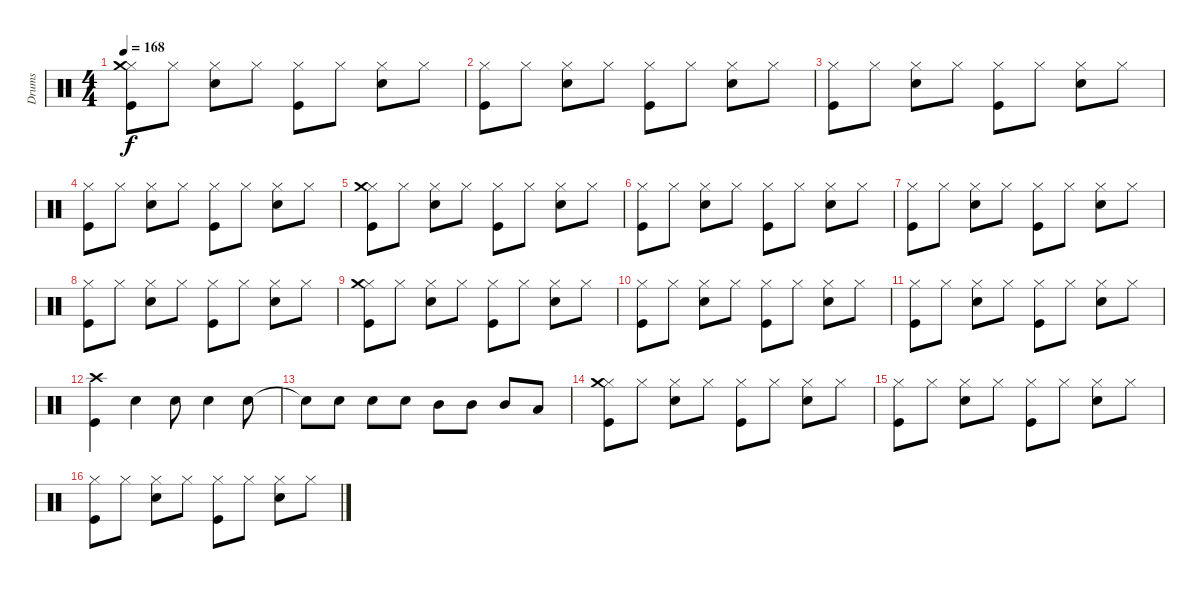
\track ("Drums" "Drums") {instrument percussion}
\staff {score}
\articulation defaults
\ts (4 4)
\tempo 168
\clef neutral
\ks c
("Kick (hit)" "Hi-Hat (closed)" "Crash medium (hit)").8{dy f} "Hi-Hat (closed)".8 ("Snare (hit) 2" "Hi-Hat (closed)").8 "Hi-Hat (closed)".8 ("Kick (hit)" "Hi-Hat (closed)").8 "Hi-Hat (closed)".8 ("Snare (hit) 2" "Hi-Hat (closed)").8 "Hi-Hat (closed)".8 |
("Kick (hit)" "Hi-Hat (closed)").8 "Hi-Hat (closed)".8 ("Snare (hit) 2" "Hi-Hat (closed)").8 "Hi-Hat (closed)".8 ("Kick (hit)" "Hi-Hat (closed)").8 "Hi-Hat (closed)".8 ("Snare (hit) 2" "Hi-Hat (closed)").8 "Hi-Hat (closed)".8 |
("Kick (hit)" "Hi-Hat (closed)").8 "Hi-Hat (closed)".8 ("Snare (hit) 2" "Hi-Hat (closed)").8 "Hi-Hat (closed)".8 ("Kick (hit)" "Hi-Hat (closed)").8 "Hi-Hat (closed)".8 ("Snare (hit) 2" "Hi-Hat (closed)").8 "Hi-Hat (closed)".8 |
("Kick (hit)" "Hi-Hat (closed)").8 "Hi-Hat (closed)".8 ("Snare (hit) 2" "Hi-Hat (closed)").8 "Hi-Hat (closed)".8 ("Kick (hit)" "Hi-Hat (closed)").8 "Hi-Hat (closed)".8 ("Snare (hit) 2" "Hi-Hat (closed)").8 "Hi-Hat (closed)".8 |
("Kick (hit)" "Hi-Hat (closed)" "Crash medium (hit)").8 "Hi-Hat (closed)".8 ("Snare (hit) 2" "Hi-Hat (closed)").8 "Hi-Hat (closed)".8 ("Kick (hit)" "Hi-Hat (closed)").8 "Hi-Hat (closed)".8 ("Snare (hit) 2" "Hi-Hat (closed)").8 "Hi-Hat (closed)".8 |
("Kick (hit)" "Hi-Hat (closed)").8 "Hi-Hat (closed)".8 ("Snare (hit) 2" "Hi-Hat (closed)").8 "Hi-Hat (closed)".8 ("Kick (hit)" "Hi-Hat (closed)").8 "Hi-Hat (closed)".8 ("Snare (hit) 2" "Hi-Hat (closed)").8 "Hi-Hat (closed)".8 |
("Kick (hit)" "Hi-Hat (closed)").8 "Hi-Hat (closed)".8 ("Snare (hit) 2" "Hi-Hat (closed)").8 "Hi-Hat (closed)".8 ("Kick (hit)" "Hi-Hat (closed)").8 "Hi-Hat (closed)".8 ("Snare (hit) 2" "Hi-Hat (closed)").8 "Hi-Hat (closed)".8 |
("Kick (hit)" "Hi-Hat (closed)").8 "Hi-Hat (closed)".8 ("Snare (hit) 2" "Hi-Hat (closed)").8 "Hi-Hat (closed)".8 ("Kick (hit)" "Hi-Hat (closed)").8 "Hi-Hat (closed)".8 ("Snare (hit) 2" "Hi-Hat (closed)").8 "Hi-Hat (closed)".8 |
("Kick (hit)" "Hi-Hat (closed)" "Crash medium (hit)").8 "Hi-Hat (closed)".8 ("Snare (hit) 2" "Hi-Hat (closed)").8 "Hi-Hat (closed)".8 ("Kick (hit)" "Hi-Hat (closed)").8 "Hi-Hat (closed)".8 ("Snare (hit) 2" "Hi-Hat (closed)").8 "Hi-Hat (closed)".8 |
("Kick (hit)" "Hi-Hat (closed)").8 "Hi-Hat (closed)".8 ("Snare (hit) 2" "Hi-Hat (closed)").8 "Hi-Hat (closed)".8 ("Kick (hit)" "Hi-Hat (closed)").8 "Hi-Hat (closed)".8 ("Snare (hit) 2" "Hi-Hat (closed)").8 "Hi-Hat (closed)".8 |
("Kick (hit)" "Hi-Hat (closed)").8 "Hi-Hat (closed)".8 ("Snare (hit) 2" "Hi-Hat (closed)").8 "Hi-Hat (closed)".8 ("Kick (hit)" "Hi-Hat (closed)").8 "Hi-Hat (closed)".8 ("Snare (hit) 2" "Hi-Hat (closed)").8 "Hi-Hat (closed)".8 |
("Kick (hit)" "Crash high (hit)").4 "Snare (hit) 2".4 "Snare (hit) 2".8 "Snare (hit) 2".4 "Snare (hit) 2".8 |
"Snare (hit)"{t}.8 "Snare (hit) 2".8 "Snare (hit) 2".8 "Snare (hit) 2".8 "Mid Tom (hit)".8 "Mid Tom (hit)".8 "Mid Tom (hit)".8 "Low Floor Tom (hit)".8 |
("Kick (hit)" "Hi-Hat (closed)" "Crash medium (hit)").8 "Hi-Hat (closed)".8 ("Snare (hit) 2" "Hi-Hat (closed)").8 "Hi-Hat (closed)".8 ("Kick (hit)" "Hi-Hat (closed)").8 "Hi-Hat (closed)".8 ("Snare (hit) 2" "Hi-Hat (closed)").8 "Hi-Hat (closed)".8 |
("Kick (hit)" "Hi-Hat (closed)").8 "Hi-Hat (closed)".8 ("Snare (hit) 2" "Hi-Hat (closed)").8 "Hi-Hat (closed)".8 ("Kick (hit)" "Hi-Hat (closed)").8 "Hi-Hat (closed)".8 ("Snare (hit) 2" "Hi-Hat (closed)").8 "Hi-Hat (closed)".8 |
("Kick (hit)" "Hi-Hat (closed)").8 "Hi-Hat (closed)".8 ("Snare (hit) 2" "Hi-Hat (closed)").8 "Hi-Hat (closed)".8 ("Kick (hit)" "Hi-Hat (closed)").8 "Hi-Hat (closed)".8 ("Snare (hit) 2" "Hi-Hat (closed)").8 "Hi-Hat (closed)".8
